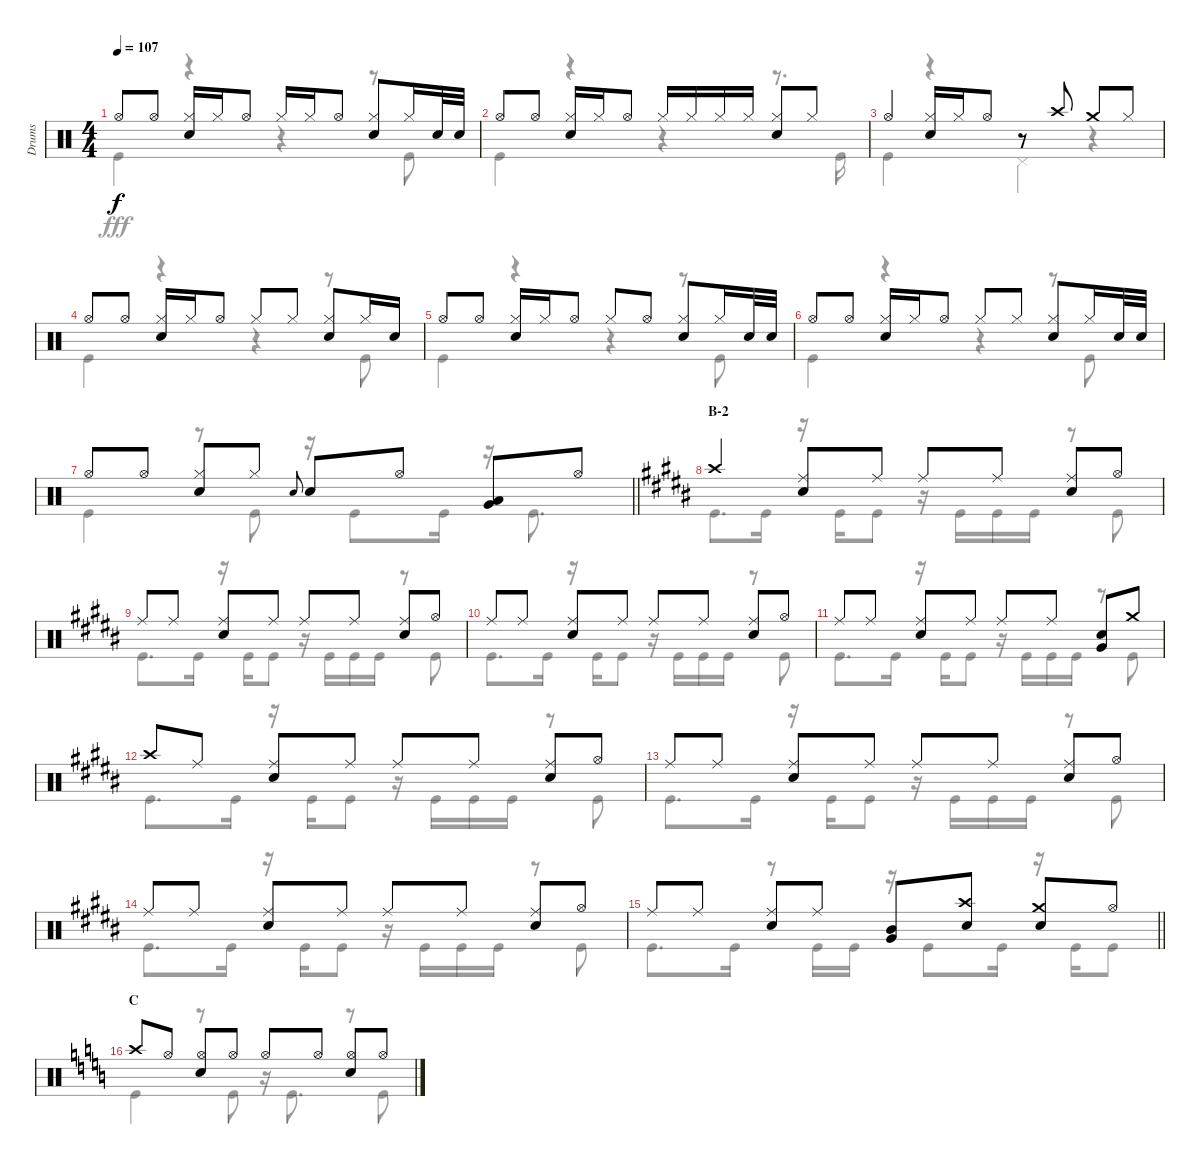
\track ("Drums" "Drums") {instrument percussion}
\staff {score}
\articulation defaults
\voice
\ts (4 4)
\tempo 107
\clef neutral
\ks c "Hi-Hat (open)".8{dy f} "Hi-Hat (open)".8
("Hi-Hat (closed)" "Snare (hit) 2").16 "Hi-Hat (closed)".16 "Hi-Hat (open)".8 "Hi-Hat (closed)".16 "Hi-Hat (closed)".16 "Hi-Hat (open)".8 ("Hi-Hat (closed)" "Snare (hit) 2").8 "Hi-Hat (closed)".16 "Snare (hit) 2".32 "Snare (hit) 2".32 |
"Hi-Hat (open)".8 "Hi-Hat (open)".8 ("Hi-Hat (closed)" "Snare (hit) 2").16 "Hi-Hat (closed)".16 "Hi-Hat (open)".8 "Hi-Hat (closed)".16 "Hi-Hat (closed)".16 "Hi-Hat (closed)".16 "Hi-Hat (closed)".16 ("Hi-Hat (closed)" "Snare (hit) 2").8 "Hi-Hat (closed)".8 |
"Hi-Hat (open)".4 ("Hi-Hat (closed)" "Snare (hit) 2").16 "Hi-Hat (closed)".16 "Hi-Hat (open)".8 r.8 "Crash high (hit)".8 "Crash medium (hit)".8 "Hi-Hat (closed)".8 |
"Hi-Hat (open)".8 "Hi-Hat (open)".8 ("Hi-Hat (closed)" "Snare (hit) 2").16 "Hi-Hat (closed)".16 "Hi-Hat (open)".8 "Hi-Hat (closed)".8 "Hi-Hat (closed)".8 ("Hi-Hat (closed)" "Snare (hit) 2").8 "Hi-Hat (closed)".16 "Snare (hit) 2".16 |
"Hi-Hat (open)".8 "Hi-Hat (open)".8 ("Hi-Hat (closed)" "Snare (hit) 2").16 "Hi-Hat (closed)".16 "Hi-Hat (open)".8 "Hi-Hat (closed)".8 "Hi-Hat (open)".8 ("Hi-Hat (closed)" "Snare (hit) 2").8 "Hi-Hat (closed)".16 "Snare (hit) 2".32 "Snare (hit) 2".32 |
"Hi-Hat (open)".8 "Hi-Hat (open)".8 ("Hi-Hat (closed)" "Snare (hit) 2").16 "Hi-Hat (closed)".16 "Hi-Hat (open)".8 "Hi-Hat (closed)".8 "Hi-Hat (closed)".8 ("Hi-Hat (closed)" "Snare (hit) 2").8 "Hi-Hat (closed)".16 "Snare (hit) 2".32 "Snare (hit) 2".32 |
\barLineRight lightlight "Hi-Hat (open)".8 "Hi-Hat (open)".8
("Hi-Hat (closed)" "Snare (hit) 2").8 "Hi-Hat (closed)".8 "Snare (hit) 2".8{gr onbeat} "Snare (hit) 2".8 "Hi-Hat (open)".8 ("Low Tom (hit)" "Very Low Tom (hit)").8 "Hi-Hat (open)".8 |
\section ("" "B-2")
\ks b "Crash high (hit)".4
("Ride (middle)" "Snare (hit) 2").8 "Ride (middle)".8 "Ride (middle)".8 "Ride (middle)".8 ("Ride (middle)" "Snare (hit) 2").8 "Hi-Hat (open)".8 |
"Ride (middle)".8 "Ride (middle)".8 ("Ride (middle)" "Snare (hit) 2").8 "Ride (middle)".8 "Ride (middle)".8 "Ride (middle)".8 ("Ride (middle)" "Snare (hit) 2").8 "Hi-Hat (open)".8 |
"Ride (middle)".8 "Ride (middle)".8 ("Ride (middle)" "Snare (hit) 2").8 "Ride (middle)".8 "Ride (middle)".8 "Ride (middle)".8 ("Ride (middle)" "Snare (hit) 2").8 "Hi-Hat (open)".8 |
"Ride (middle)".8 "Ride (middle)".8 ("Ride (middle)" "Snare (hit) 2").8 "Ride (middle)".8 "Ride (middle)".8 "Ride (middle)".8 ("Snare (hit) 2" "Very Low Tom (hit)").8 "Crash medium (hit)".8 |
"Crash high (hit)".8 "Ride (middle)".8 ("Ride (middle)" "Snare (hit) 2").8 "Ride (middle)".8 "Ride (middle)".8 "Ride (middle)".8 ("Ride (middle)" "Snare (hit) 2").8 "Hi-Hat (open)".8 |
"Ride (middle)".8 "Ride (middle)".8 ("Ride (middle)" "Snare (hit) 2").8 "Ride (middle)".8 "Ride (middle)".8 "Ride (middle)".8 ("Ride (middle)" "Snare (hit) 2").8 "Hi-Hat (open)".8 |
"Ride (middle)".8 "Ride (middle)".8 ("Ride (middle)" "Snare (hit) 2").8 "Ride (middle)".8 "Ride (middle)".8 "Ride (middle)".8 ("Ride (middle)" "Snare (hit) 2").8 "Hi-Hat (open)".8 |
\barLineRight lightlight "Ride (middle)".8 "Ride (middle)".8
("Ride (middle)" "Snare (hit) 2").8 "Ride (middle)".8 ("Mid Tom (hit)" "Very Low Tom (hit)").8 ("Crash high (hit)" "Snare (hit) 2").8 ("Crash medium (hit)" "Snare (hit) 2").8 "Hi-Hat (open)".8 |
\section ("" "C")
\ks c "Crash high (hit)".8 "Hi-Hat (open)".8
("Hi-Hat (open)" "Snare (hit) 2").8 "Hi-Hat (open)".8 "Hi-Hat (open)".8 "Hi-Hat (open)".8 ("Hi-Hat (open)" "Snare (hit) 2").8 "Hi-Hat (open)".8
\voice
\clef neutral
\ottava regular
\simile none
\ks c "Kick (hit)".4{dy fff}
r.4 r.4 r.8 "Kick (hit)".8 |
"Kick (hit)".4 r.4 r.4 r.8{d} "Kick (hit)".16 |
"Kick (hit)".4 r.4 "Pedal Hi-Hat (hit)".4 r.4 |
"Kick (hit)".4 r.4 r.4 r.8 "Kick (hit)".8 |
"Kick (hit)".4 r.4 r.4 r.8 "Kick (hit)".8 |
"Kick (hit)".4 r.4 r.4 r.8 "Kick (hit)".8 |
\barLineRight lightlight "Kick (hit)".4
r.8 "Kick (hit)".8 r.16 "Kick (hit)".8 "Kick (hit)".16 r.16 "Kick (hit)".8{d} |
\ks b "Kick (hit)".8{d} "Kick (hit)".16
r.16 "Kick (hit)".16 "Kick (hit)".8 r.16 "Kick (hit)".16 "Kick (hit)".16 "Kick (hit)".16 r.8 "Kick (hit)".8 |
"Kick (hit)".8{d} "Kick (hit)".16 r.16 "Kick (hit)".16 "Kick (hit)".8 r.16 "Kick (hit)".16 "Kick (hit)".16 "Kick (hit)".16 r.8 "Kick (hit)".8 |
"Kick (hit)".8{d} "Kick (hit)".16 r.16 "Kick (hit)".16 "Kick (hit)".8 r.16 "Kick (hit)".16 "Kick (hit)".16 "Kick (hit)".16 r.8 "Kick (hit)".8 |
"Kick (hit)".8{d} "Kick (hit)".16 r.16 "Kick (hit)".16 "Kick (hit)".8 r.16 "Kick (hit)".16 "Kick (hit)".16 "Kick (hit)".16 r.8 "Kick (hit)".8 |
"Kick (hit)".8{d} "Kick (hit)".16 r.16 "Kick (hit)".16 "Kick (hit)".8 r.16 "Kick (hit)".16 "Kick (hit)".16 "Kick (hit)".16 r.8 "Kick (hit)".8 |
"Kick (hit)".8{d} "Kick (hit)".16 r.16 "Kick (hit)".16 "Kick (hit)".8 r.16 "Kick (hit)".16 "Kick (hit)".16 "Kick (hit)".16 r.8 "Kick (hit)".8 |
"Kick (hit)".8{d} "Kick (hit)".16 r.16 "Kick (hit)".16 "Kick (hit)".8 r.16 "Kick (hit)".16 "Kick (hit)".16 "Kick (hit)".16 r.8 "Kick (hit)".8 |
\barLineRight lightlight "Kick (hit)".8{d} "Kick (hit)".16
r.8 "Kick (hit)".16 "Kick (hit)".16 r.16 "Kick (hit)".8 "Kick (hit)".16 r.16 "Kick (hit)".16 "Kick (hit)".8 |
\ks c "Kick (hit)".4
r.8 "Kick (hit)".8 r.16 "Kick (hit)".8{d} r.8 "Kick (hit)".8
